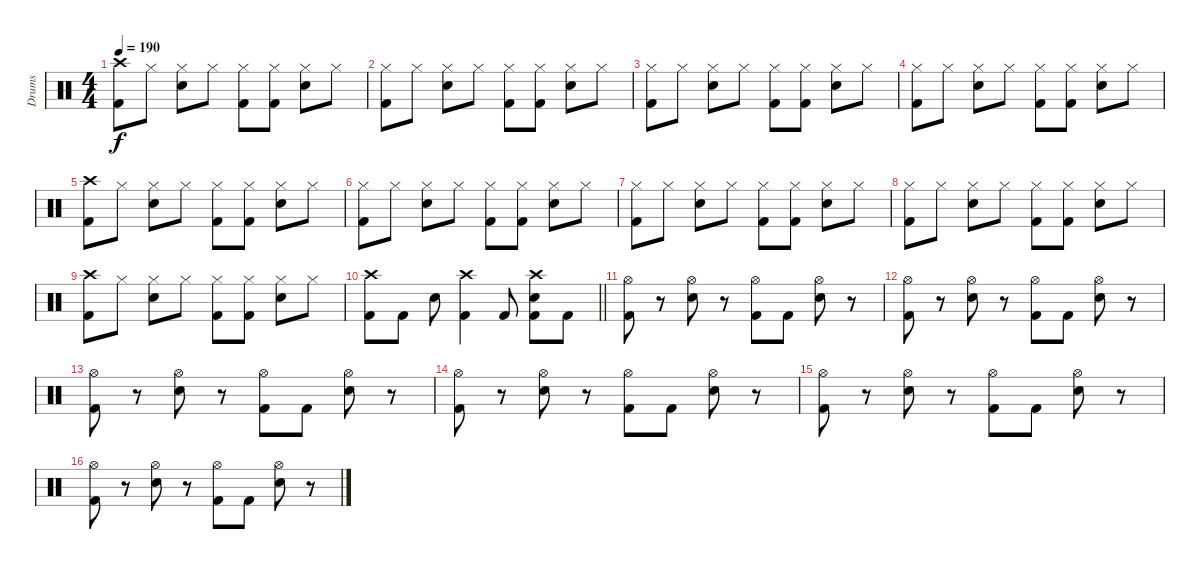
\track ("Drums" "Drums") {instrument percussion}
\staff {score}
\articulation defaults
\ts (4 4)
\tempo 190
\clef neutral
\ks c
("Crash high (hit)" "Kick (hit) 2").8{dy f} "Hi-Hat (closed)".8 ("Hi-Hat (closed)" "Electric Snare (hit)").8 "Hi-Hat (closed)".8 ("Hi-Hat (closed)" "Kick (hit) 2").8 ("Hi-Hat (closed)" "Kick (hit) 2").8 ("Hi-Hat (closed)" "Electric Snare (hit)").8 "Hi-Hat (closed)".8 |
("Hi-Hat (closed)" "Kick (hit) 2").8 "Hi-Hat (closed)".8 ("Hi-Hat (closed)" "Electric Snare (hit)").8 "Hi-Hat (closed)".8 ("Hi-Hat (closed)" "Kick (hit) 2").8 ("Hi-Hat (closed)" "Kick (hit) 2").8 ("Hi-Hat (closed)" "Electric Snare (hit)").8 "Hi-Hat (closed)".8 |
("Hi-Hat (closed)" "Kick (hit) 2").8 "Hi-Hat (closed)".8 ("Hi-Hat (closed)" "Electric Snare (hit)").8 "Hi-Hat (closed)".8 ("Hi-Hat (closed)" "Kick (hit) 2").8 ("Hi-Hat (closed)" "Kick (hit) 2").8 ("Hi-Hat (closed)" "Electric Snare (hit)").8 "Hi-Hat (closed)".8 |
("Hi-Hat (closed)" "Kick (hit) 2").8 "Hi-Hat (closed)".8 ("Hi-Hat (closed)" "Electric Snare (hit)").8 "Hi-Hat (closed)".8 ("Hi-Hat (closed)" "Kick (hit) 2").8 ("Hi-Hat (closed)" "Kick (hit) 2").8 ("Hi-Hat (closed)" "Electric Snare (hit)").8 "Hi-Hat (closed)".8 |
("Crash high (hit)" "Kick (hit) 2").8 "Hi-Hat (closed)".8 ("Hi-Hat (closed)" "Electric Snare (hit)").8 "Hi-Hat (closed)".8 ("Hi-Hat (closed)" "Kick (hit) 2").8 ("Hi-Hat (closed)" "Kick (hit) 2").8 ("Hi-Hat (closed)" "Electric Snare (hit)").8 "Hi-Hat (closed)".8 |
("Hi-Hat (closed)" "Kick (hit) 2").8 "Hi-Hat (closed)".8 ("Hi-Hat (closed)" "Electric Snare (hit)").8 "Hi-Hat (closed)".8 ("Hi-Hat (closed)" "Kick (hit) 2").8 ("Hi-Hat (closed)" "Kick (hit) 2").8 ("Hi-Hat (closed)" "Electric Snare (hit)").8 "Hi-Hat (closed)".8 |
("Hi-Hat (closed)" "Kick (hit) 2").8 "Hi-Hat (closed)".8 ("Hi-Hat (closed)" "Electric Snare (hit)").8 "Hi-Hat (closed)".8 ("Hi-Hat (closed)" "Kick (hit) 2").8 ("Hi-Hat (closed)" "Kick (hit) 2").8 ("Hi-Hat (closed)" "Electric Snare (hit)").8 "Hi-Hat (closed)".8 |
("Hi-Hat (closed)" "Kick (hit) 2").8 "Hi-Hat (closed)".8 ("Hi-Hat (closed)" "Electric Snare (hit)").8 "Hi-Hat (closed)".8 ("Hi-Hat (closed)" "Kick (hit) 2").8 ("Hi-Hat (closed)" "Kick (hit) 2").8 ("Hi-Hat (closed)" "Electric Snare (hit)").8 "Hi-Hat (closed)".8 |
("Crash high (hit)" "Kick (hit) 2").8 "Hi-Hat (closed)".8 ("Hi-Hat (closed)" "Electric Snare (hit)").8 "Hi-Hat (closed)".8 ("Hi-Hat (closed)" "Kick (hit) 2").8 ("Hi-Hat (closed)" "Kick (hit) 2").8 ("Hi-Hat (closed)" "Electric Snare (hit)").8 "Hi-Hat (closed)".8 |
\barLineRight lightlight
("Crash high (hit)" "Kick (hit) 2").8 "Kick (hit) 2".8 "Electric Snare (hit)".8 ("Crash high (hit)" "Kick (hit) 2").4 "Kick (hit) 2".8 ("Crash high (hit)" "Electric Snare (hit)" "Kick (hit) 2").8 "Kick (hit) 2".8 |
("Hi-Hat (open)" "Kick (hit) 2").8 r.8 ("Hi-Hat (open)" "Electric Snare (hit)").8 r.8 ("Hi-Hat (open)" "Kick (hit) 2").8 "Kick (hit) 2".8 ("Hi-Hat (open)" "Electric Snare (hit)").8 r.8 |
("Hi-Hat (open)" "Kick (hit) 2").8 r.8 ("Hi-Hat (open)" "Electric Snare (hit)").8 r.8 ("Hi-Hat (open)" "Kick (hit) 2").8 "Kick (hit) 2".8 ("Hi-Hat (open)" "Electric Snare (hit)").8 r.8 |
("Hi-Hat (open)" "Kick (hit) 2").8 r.8 ("Hi-Hat (open)" "Electric Snare (hit)").8 r.8 ("Hi-Hat (open)" "Kick (hit) 2").8 "Kick (hit) 2".8 ("Hi-Hat (open)" "Electric Snare (hit)").8 r.8 |
("Hi-Hat (open)" "Kick (hit) 2").8 r.8 ("Hi-Hat (open)" "Electric Snare (hit)").8 r.8 ("Hi-Hat (open)" "Kick (hit) 2").8 "Kick (hit) 2".8 ("Hi-Hat (open)" "Electric Snare (hit)").8 r.8 |
("Hi-Hat (open)" "Kick (hit) 2").8 r.8 ("Hi-Hat (open)" "Electric Snare (hit)").8 r.8 ("Hi-Hat (open)" "Kick (hit) 2").8 "Kick (hit) 2".8 ("Hi-Hat (open)" "Electric Snare (hit)").8 r.8 |
("Hi-Hat (open)" "Kick (hit) 2").8 r.8 ("Hi-Hat (open)" "Electric Snare (hit)").8 r.8 ("Hi-Hat (open)" "Kick (hit) 2").8 "Kick (hit) 2".8 ("Hi-Hat (open)" "Electric Snare (hit)").8 r.8
